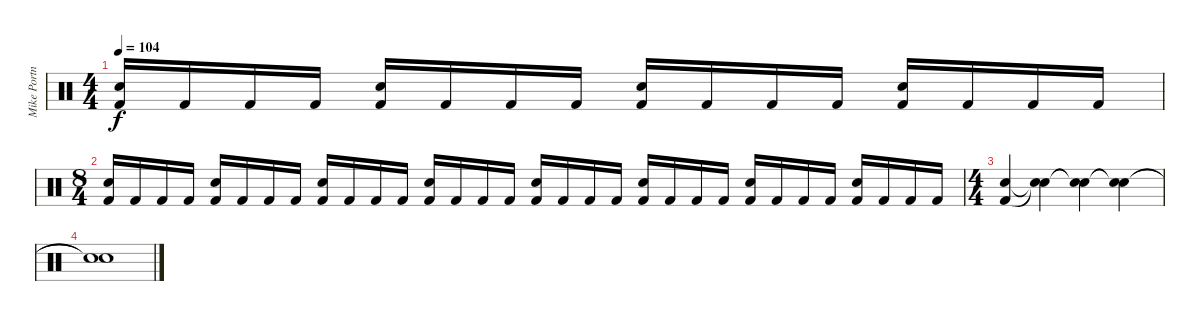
\track ("Mike Portnoy" "Mike Portn") {instrument percussion}
\staff {score}
\articulation defaults
\ts (4 4)
\tempo 104
\clef neutral
\ks c
("Snare (hit) 2" "Kick (hit) 2").16{dy f} "Kick (hit) 2".16 "Kick (hit) 2".16 "Kick (hit) 2".16 ("Snare (hit) 2" "Kick (hit) 2").16 "Kick (hit) 2".16 "Kick (hit) 2".16 "Kick (hit) 2".16 ("Snare (hit) 2" "Kick (hit) 2").16 "Kick (hit) 2".16 "Kick (hit) 2".16 "Kick (hit) 2".16 ("Snare (hit) 2" "Kick (hit) 2").16 "Kick (hit) 2".16 "Kick (hit) 2".16 "Kick (hit) 2".16 |
\ts (8 4)
("Snare (hit) 2" "Kick (hit) 2").16 "Kick (hit) 2".16 "Kick (hit) 2".16 "Kick (hit) 2".16 ("Snare (hit) 2" "Kick (hit) 2").16 "Kick (hit) 2".16 "Kick (hit) 2".16 "Kick (hit) 2".16 ("Snare (hit) 2" "Kick (hit) 2").16 "Kick (hit) 2".16 "Kick (hit) 2".16 "Kick (hit) 2".16 ("Snare (hit) 2" "Kick (hit) 2").16 "Kick (hit) 2".16 "Kick (hit) 2".16 "Kick (hit) 2".16 ("Snare (hit) 2" "Kick (hit) 2").16 "Kick (hit) 2".16 "Kick (hit) 2".16 "Kick (hit) 2".16 ("Snare (hit) 2" "Kick (hit) 2").16 "Kick (hit) 2".16 "Kick (hit) 2".16 "Kick (hit) 2".16 ("Snare (hit) 2" "Kick (hit) 2").16 "Kick (hit) 2".16 "Kick (hit) 2".16 "Kick (hit) 2".16 ("Snare (hit) 2" "Kick (hit) 2").16 "Kick (hit) 2".16 "Kick (hit) 2".16 "Kick (hit) 2".16 |
\ts (4 4)
("Snare (hit) 2" "Kick (hit) 2").4 ("Snare (hit)"{t} "Snare (hit)"{t}).4 ("Snare (hit)"{t} "Snare (hit)"{t}).4 ("Snare (hit)"{t} "Snare (hit)"{t}).4 |
("Snare (hit)"{t} "Snare (hit)"{t}).1
